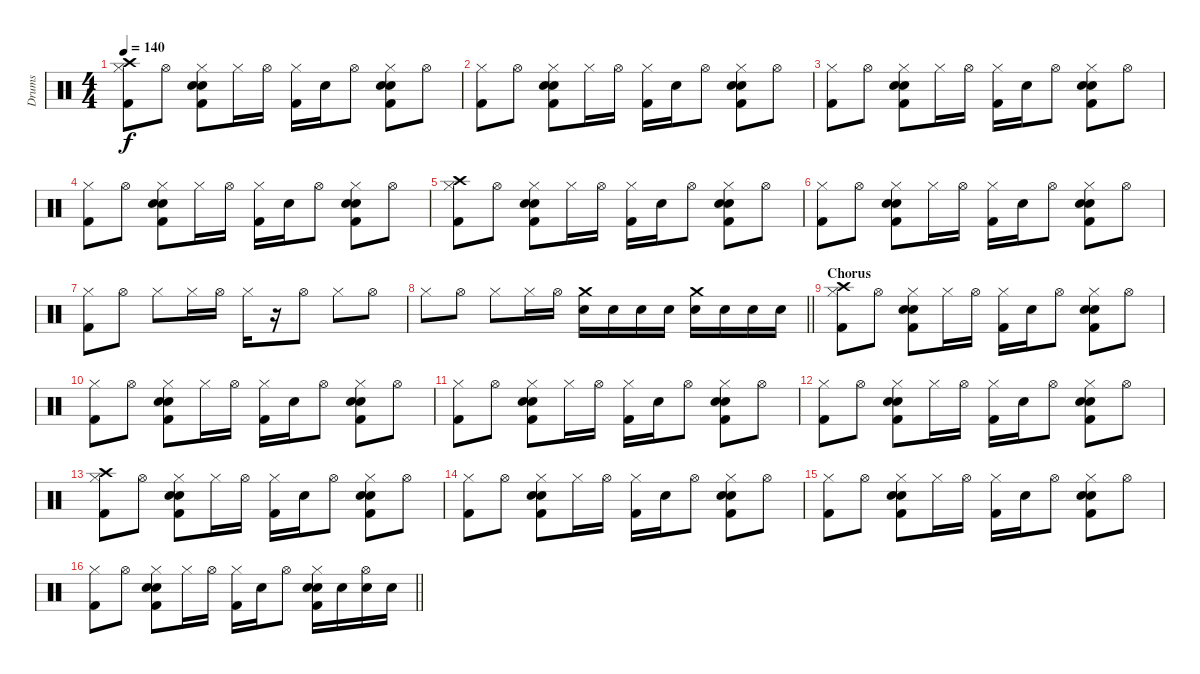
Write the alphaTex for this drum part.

\track ("Drums" "Drums") {instrument percussion}
\staff {score}
\articulation defaults
\ts (4 4)
\tempo 140
\clef neutral
\ks c
("Crash high (hit)" "Hi-Hat (closed)" "Kick (hit) 2").8{dy f} "Hi-Hat (open)".8 ("Hi-Hat (closed)" "Hand Clap (hit)" "Snare (hit) 2" "Kick (hit) 2").8 "Hi-Hat (closed)".16 "Hi-Hat (open)".16 ("Hi-Hat (closed)" "Kick (hit) 2").16 "Hand Clap (hit)".16 "Hi-Hat (open)".8 ("Hi-Hat (closed)" "Hand Clap (hit)" "Snare (hit) 2" "Kick (hit) 2").8 "Hi-Hat (open)".8 |
("Hi-Hat (closed)" "Kick (hit) 2").8 "Hi-Hat (open)".8 ("Hi-Hat (closed)" "Hand Clap (hit)" "Snare (hit) 2" "Kick (hit) 2").8 "Hi-Hat (closed)".16 "Hi-Hat (open)".16 ("Hi-Hat (closed)" "Kick (hit) 2").16 "Hand Clap (hit)".16 "Hi-Hat (open)".8 ("Hi-Hat (closed)" "Hand Clap (hit)" "Snare (hit) 2" "Kick (hit) 2").8 "Hi-Hat (open)".8 |
("Hi-Hat (closed)" "Kick (hit) 2").8 "Hi-Hat (open)".8 ("Hi-Hat (closed)" "Hand Clap (hit)" "Snare (hit) 2" "Kick (hit) 2").8 "Hi-Hat (closed)".16 "Hi-Hat (open)".16 ("Hi-Hat (closed)" "Kick (hit) 2").16 "Hand Clap (hit)".16 "Hi-Hat (open)".8 ("Hi-Hat (closed)" "Hand Clap (hit)" "Snare (hit) 2" "Kick (hit) 2").8 "Hi-Hat (open)".8 |
("Hi-Hat (closed)" "Kick (hit) 2").8 "Hi-Hat (open)".8 ("Hi-Hat (closed)" "Hand Clap (hit)" "Snare (hit) 2" "Kick (hit) 2").8 "Hi-Hat (closed)".16 "Hi-Hat (open)".16 ("Hi-Hat (closed)" "Kick (hit) 2").16 "Hand Clap (hit)".16 "Hi-Hat (open)".8 ("Hi-Hat (closed)" "Hand Clap (hit)" "Snare (hit) 2" "Kick (hit) 2").8 "Hi-Hat (open)".8 |
("Crash high (hit)" "Hi-Hat (closed)" "Kick (hit) 2").8 "Hi-Hat (open)".8 ("Hi-Hat (closed)" "Hand Clap (hit)" "Snare (hit) 2" "Kick (hit) 2").8 "Hi-Hat (closed)".16 "Hi-Hat (open)".16 ("Hi-Hat (closed)" "Kick (hit) 2").16 "Hand Clap (hit)".16 "Hi-Hat (open)".8 ("Hi-Hat (closed)" "Hand Clap (hit)" "Snare (hit) 2" "Kick (hit) 2").8 "Hi-Hat (open)".8 |
("Hi-Hat (closed)" "Kick (hit) 2").8 "Hi-Hat (open)".8 ("Hi-Hat (closed)" "Hand Clap (hit)" "Snare (hit) 2" "Kick (hit) 2").8 "Hi-Hat (closed)".16 "Hi-Hat (open)".16 ("Hi-Hat (closed)" "Kick (hit) 2").16 "Hand Clap (hit)".16 "Hi-Hat (open)".8 ("Hi-Hat (closed)" "Hand Clap (hit)" "Snare (hit) 2" "Kick (hit) 2").8 "Hi-Hat (open)".8 |
("Hi-Hat (closed)" "Kick (hit) 2").8 "Hi-Hat (open)".8 "Hi-Hat (closed)".8 "Hi-Hat (closed)".16 "Hi-Hat (open)".16 "Hi-Hat (closed)".16 r.16 "Hi-Hat (open)".8 "Hi-Hat (closed)".8 "Hi-Hat (open)".8 |
\barLineRight lightlight "Hi-Hat (closed)".8 "Hi-Hat (open)".8 "Hi-Hat (closed)".8 "Hi-Hat (closed)".16 "Hi-Hat (open)".16
("Crash medium (hit)" "Snare (hit) 2").16 "Snare (hit) 2".16 "Snare (hit) 2".16 "Snare (hit) 2".16 ("Crash medium (hit)" "Snare (hit) 2").16 "Snare (hit) 2".16 "Snare (hit) 2".16 "Snare (hit) 2".16 |
\section ("" "Chorus")
("Crash high (hit)" "Hi-Hat (closed)" "Kick (hit) 2").8 "Hi-Hat (open)".8 ("Hi-Hat (closed)" "Hand Clap (hit)" "Snare (hit) 2" "Kick (hit) 2").8 "Hi-Hat (closed)".16 "Hi-Hat (open)".16 ("Hi-Hat (closed)" "Kick (hit) 2").16 "Hand Clap (hit)".16 "Hi-Hat (open)".8 ("Hi-Hat (closed)" "Hand Clap (hit)" "Snare (hit) 2" "Kick (hit) 2").8 "Hi-Hat (open)".8 |
("Hi-Hat (closed)" "Kick (hit) 2").8 "Hi-Hat (open)".8 ("Hi-Hat (closed)" "Hand Clap (hit)" "Snare (hit) 2" "Kick (hit) 2").8 "Hi-Hat (closed)".16 "Hi-Hat (open)".16 ("Hi-Hat (closed)" "Kick (hit) 2").16 "Hand Clap (hit)".16 "Hi-Hat (open)".8 ("Hi-Hat (closed)" "Hand Clap (hit)" "Snare (hit) 2" "Kick (hit) 2").8 "Hi-Hat (open)".8 |
("Hi-Hat (closed)" "Kick (hit) 2").8 "Hi-Hat (open)".8 ("Hi-Hat (closed)" "Hand Clap (hit)" "Snare (hit) 2" "Kick (hit) 2").8 "Hi-Hat (closed)".16 "Hi-Hat (open)".16 ("Hi-Hat (closed)" "Kick (hit) 2").16 "Hand Clap (hit)".16 "Hi-Hat (open)".8 ("Hi-Hat (closed)" "Hand Clap (hit)" "Snare (hit) 2" "Kick (hit) 2").8 "Hi-Hat (open)".8 |
("Hi-Hat (closed)" "Kick (hit) 2").8 "Hi-Hat (open)".8 ("Hi-Hat (closed)" "Hand Clap (hit)" "Snare (hit) 2" "Kick (hit) 2").8 "Hi-Hat (closed)".16 "Hi-Hat (open)".16 ("Hi-Hat (closed)" "Kick (hit) 2").16 "Hand Clap (hit)".16 "Hi-Hat (open)".8 ("Hi-Hat (closed)" "Hand Clap (hit)" "Snare (hit) 2" "Kick (hit) 2").8 "Hi-Hat (open)".8 |
("Crash high (hit)" "Hi-Hat (closed)" "Kick (hit) 2").8 "Hi-Hat (open)".8 ("Hi-Hat (closed)" "Hand Clap (hit)" "Snare (hit) 2" "Kick (hit) 2").8 "Hi-Hat (closed)".16 "Hi-Hat (open)".16 ("Hi-Hat (closed)" "Kick (hit) 2").16 "Hand Clap (hit)".16 "Hi-Hat (open)".8 ("Hi-Hat (closed)" "Hand Clap (hit)" "Snare (hit) 2" "Kick (hit) 2").8 "Hi-Hat (open)".8 |
("Hi-Hat (closed)" "Kick (hit) 2").8 "Hi-Hat (open)".8 ("Hi-Hat (closed)" "Hand Clap (hit)" "Snare (hit) 2" "Kick (hit) 2").8 "Hi-Hat (closed)".16 "Hi-Hat (open)".16 ("Hi-Hat (closed)" "Kick (hit) 2").16 "Hand Clap (hit)".16 "Hi-Hat (open)".8 ("Hi-Hat (closed)" "Hand Clap (hit)" "Snare (hit) 2" "Kick (hit) 2").8 "Hi-Hat (open)".8 |
("Hi-Hat (closed)" "Kick (hit) 2").8 "Hi-Hat (open)".8 ("Hi-Hat (closed)" "Hand Clap (hit)" "Snare (hit) 2" "Kick (hit) 2").8 "Hi-Hat (closed)".16 "Hi-Hat (open)".16 ("Hi-Hat (closed)" "Kick (hit) 2").16 "Hand Clap (hit)".16 "Hi-Hat (open)".8 ("Hi-Hat (closed)" "Hand Clap (hit)" "Snare (hit) 2" "Kick (hit) 2").8 "Hi-Hat (open)".8 |
\barLineRight lightlight
("Hi-Hat (closed)" "Kick (hit) 2").8 "Hi-Hat (open)".8 ("Hi-Hat (closed)" "Hand Clap (hit)" "Snare (hit) 2" "Kick (hit) 2").8 "Hi-Hat (closed)".16 "Hi-Hat (open)".16 ("Hi-Hat (closed)" "Kick (hit) 2").16 "Hand Clap (hit)".16 "Hi-Hat (open)".8 ("Hi-Hat (closed)" "Hand Clap (hit)" "Snare (hit) 2" "Kick (hit) 2").16 "Snare (hit) 2".16 ("Hi-Hat (open)" "Snare (hit) 2").16 "Snare (hit) 2".16
